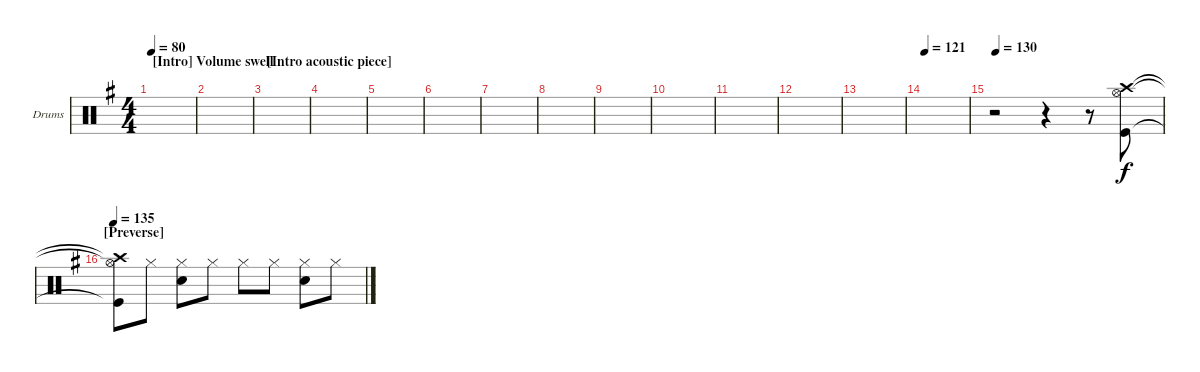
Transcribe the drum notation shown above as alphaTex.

\bracketExtendMode groupsimilarinstruments
\firstSystemTrackNameOrientation horizontal
\otherSystemsTrackNameOrientation horizontal
\track ("Drumkit" "Drums") {instrument percussion}
\staff {score}
\articulation defaults
\ts (4 4)
\section ("" "[Intro] Volume swell ")
\tempo 80
\clef neutral
\ks eminor
|
|
\section ("" "[Intro acoustic piece] ")
|
|
|
|
|
|
|
|
|
|
|
\tempo 121
|
\tempo (130 0.0125)
r.2 r.4 r.8 ("Kick (hit)" "Crash high (hit)" "Hi-Hat (open)").8 |
\section ("" "[Preverse]")
\tempo 135
("Kick (hit)"{t} "Crash high (hit)"{t} "Hi-Hat (open)"{t}).8 "Hi-Hat (closed)".8 ("Snare (hit) 2" "Hi-Hat (closed)").8 "Hi-Hat (closed)".8 "Hi-Hat (closed)".8 "Hi-Hat (closed)".8 ("Snare (hit) 2" "Hi-Hat (closed)").8 "Hi-Hat (closed)".8
